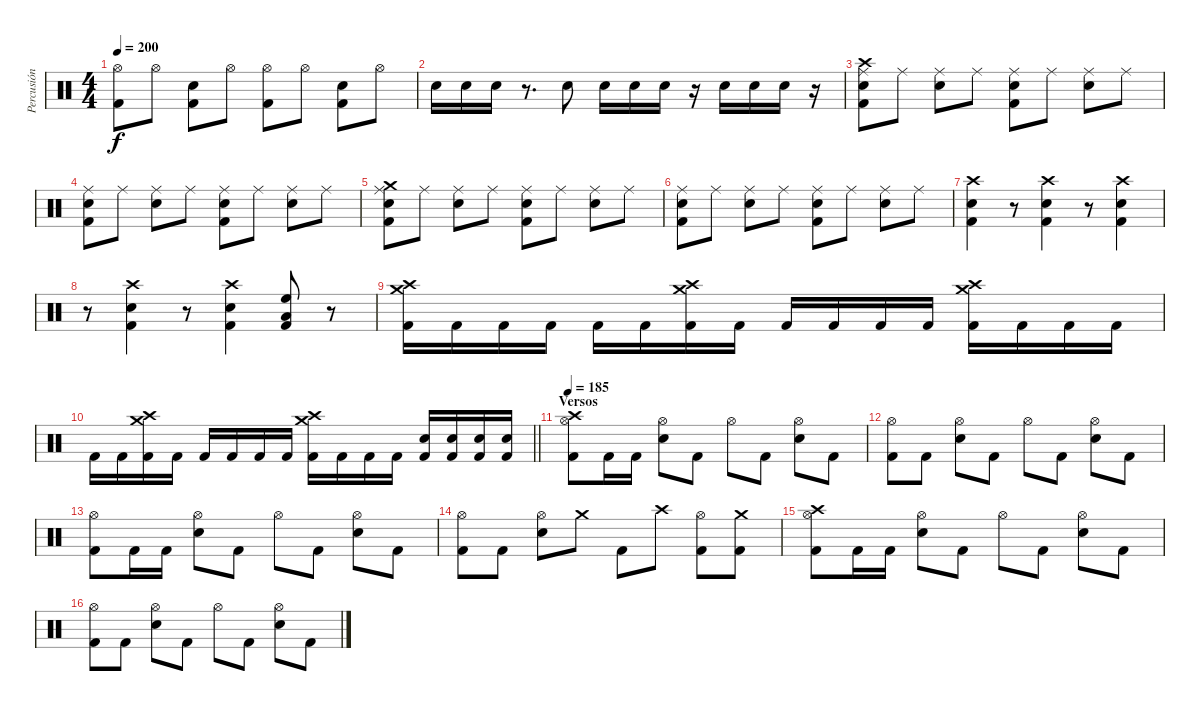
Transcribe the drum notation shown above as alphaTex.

\track ("Percusión" "Percusión") {instrument percussion}
\staff {score}
\articulation defaults
\ts (4 4)
\tempo 200
\clef neutral
\ks c
("Hi-Hat (open)" "Kick (hit) 2").8{dy f} "Hi-Hat (open)".8 ("Snare (hit) 2" "Kick (hit) 2").8 "Hi-Hat (open)".8 ("Hi-Hat (open)" "Kick (hit) 2").8 "Hi-Hat (open)".8 ("Snare (hit) 2" "Kick (hit) 2").8 "Hi-Hat (open)".8 |
"Snare (hit) 2".16 "Snare (hit) 2".16 "Snare (hit) 2".16 r.8{d} "Snare (hit) 2".8 "Snare (hit) 2".16 "Snare (hit) 2".16 "Snare (hit) 2".16 r.16 "Snare (hit) 2".16 "Snare (hit) 2".16 "Snare (hit) 2".16 r.16 |
("Crash high (hit)" "Ride (middle)" "Snare (hit) 2" "Kick (hit) 2").8 "Ride (middle)".8 ("Ride (middle)" "Snare (hit) 2").8 "Ride (middle)".8 ("Ride (middle)" "Snare (hit) 2" "Kick (hit) 2").8 "Ride (middle)".8 ("Ride (middle)" "Snare (hit) 2").8 "Ride (middle)".8 |
("Ride (middle)" "Snare (hit) 2" "Kick (hit) 2").8 "Ride (middle)".8 ("Ride (middle)" "Snare (hit) 2").8 "Ride (middle)".8 ("Ride (middle)" "Snare (hit) 2" "Kick (hit) 2").8 "Ride (middle)".8 ("Ride (middle)" "Snare (hit) 2").8 "Ride (middle)".8 |
("Crash medium (hit)" "Ride (middle)" "Snare (hit) 2" "Kick (hit) 2").8 "Ride (middle)".8 ("Ride (middle)" "Snare (hit) 2").8 "Ride (middle)".8 ("Ride (middle)" "Snare (hit) 2" "Kick (hit) 2").8 "Ride (middle)".8 ("Ride (middle)" "Snare (hit) 2").8 "Ride (middle)".8 |
("Ride (middle)" "Snare (hit) 2" "Kick (hit) 2").8 "Ride (middle)".8 ("Ride (middle)" "Snare (hit) 2").8 "Ride (middle)".8 ("Ride (middle)" "Snare (hit) 2" "Kick (hit) 2").8 "Ride (middle)".8 ("Ride (middle)" "Snare (hit) 2").8 "Ride (middle)".8 |
("Crash high (hit)" "Snare (hit) 2" "Kick (hit) 2").4 r.8 ("Crash high (hit)" "Snare (hit) 2" "Kick (hit) 2").4 r.8 ("Crash high (hit)" "Snare (hit) 2" "Kick (hit) 2").4 |
r.8 ("Crash high (hit)" "Snare (hit) 2" "Kick (hit) 2").4 r.8 ("Crash high (hit)" "Snare (hit) 2" "Kick (hit) 2").4 ("High Floor Tom (hit)" "Low Tom (hit)" "Kick (hit) 2").8 r.8 |
("Crash high (hit)" "Crash medium (hit)" "Kick (hit) 2").16 "Kick (hit) 2".16 "Kick (hit) 2".16 "Kick (hit) 2".16 "Kick (hit) 2".16 "Kick (hit) 2".16 ("Crash high (hit)" "Crash medium (hit)" "Kick (hit) 2").16 "Kick (hit) 2".16 "Kick (hit) 2".16 "Kick (hit) 2".16 "Kick (hit) 2".16 "Kick (hit) 2".16 ("Crash high (hit)" "Crash medium (hit)" "Kick (hit) 2").16 "Kick (hit) 2".16 "Kick (hit) 2".16 "Kick (hit) 2".16 |
\barLineRight lightlight "Kick (hit) 2".16 "Kick (hit) 2".16
("Crash high (hit)" "Crash medium (hit)" "Kick (hit) 2").16 "Kick (hit) 2".16 "Kick (hit) 2".16 "Kick (hit) 2".16 "Kick (hit) 2".16 "Kick (hit) 2".16 ("Crash high (hit)" "Crash medium (hit)" "Kick (hit) 2").16 "Kick (hit) 2".16 "Kick (hit) 2".16 "Kick (hit) 2".16 ("Snare (hit) 2" "Kick (hit) 2").16 ("Snare (hit) 2" "Kick (hit) 2").16 ("Snare (hit) 2" "Kick (hit) 2").16 ("Snare (hit) 2" "Kick (hit) 2").16 |
\section ("" "Versos")
\tempo 185
("Crash high (hit)" "Hi-Hat (open)" "Kick (hit) 2").8 "Kick (hit) 2".16 "Kick (hit) 2".16 ("Hi-Hat (open)" "Snare (hit) 2").8 "Kick (hit) 2".8 "Hi-Hat (open)".8 "Kick (hit) 2".8 ("Hi-Hat (open)" "Snare (hit) 2").8 "Kick (hit) 2".8 |
("Hi-Hat (open)" "Kick (hit) 2").8 "Kick (hit) 2".8 ("Hi-Hat (open)" "Snare (hit) 2").8 "Kick (hit) 2".8 "Hi-Hat (open)".8 "Kick (hit) 2".8 ("Hi-Hat (open)" "Snare (hit) 2").8 "Kick (hit) 2".8 |
("Hi-Hat (open)" "Kick (hit) 2").8 "Kick (hit) 2".16 "Kick (hit) 2".16 ("Hi-Hat (open)" "Snare (hit) 2").8 "Kick (hit) 2".8 "Hi-Hat (open)".8 "Kick (hit) 2".8 ("Hi-Hat (open)" "Snare (hit) 2").8 "Kick (hit) 2".8 |
("Hi-Hat (open)" "Kick (hit) 2").8 "Kick (hit) 2".8 ("Hi-Hat (open)" "Snare (hit) 2").8 "Crash medium (hit)".8 "Kick (hit) 2".8 "Crash high (hit)".8 ("Hi-Hat (open)" "Kick (hit) 2").8 ("Crash medium (hit)" "Kick (hit) 2").8 |
("Crash high (hit)" "Hi-Hat (open)" "Kick (hit) 2").8 "Kick (hit) 2".16 "Kick (hit) 2".16 ("Hi-Hat (open)" "Snare (hit) 2").8 "Kick (hit) 2".8 "Hi-Hat (open)".8 "Kick (hit) 2".8 ("Hi-Hat (open)" "Snare (hit) 2").8 "Kick (hit) 2".8 |
("Hi-Hat (open)" "Kick (hit) 2").8 "Kick (hit) 2".8 ("Hi-Hat (open)" "Snare (hit) 2").8 "Kick (hit) 2".8 "Hi-Hat (open)".8 "Kick (hit) 2".8 ("Hi-Hat (open)" "Snare (hit) 2").8 "Kick (hit) 2".8
